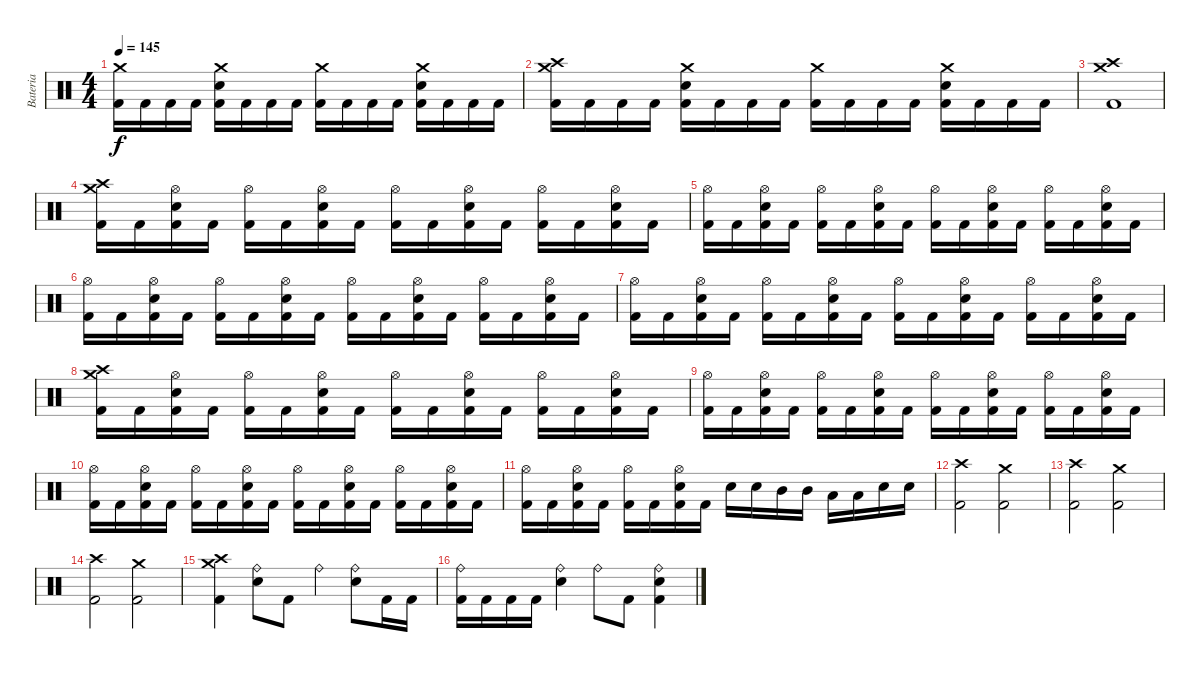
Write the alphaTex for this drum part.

\track ("Bateria" "Bateria") {instrument percussion}
\staff {score}
\articulation defaults
\ts (4 4)
\tempo 145
\clef neutral
\ks c
("Crash medium (hit)" "Kick (hit) 2").16{dy f} "Kick (hit) 2".16 "Kick (hit) 2".16 "Kick (hit) 2".16 ("Crash medium (hit)" "Snare (hit) 2" "Kick (hit) 2").16 "Kick (hit) 2".16 "Kick (hit) 2".16 "Kick (hit) 2".16 ("Crash medium (hit)" "Kick (hit) 2").16 "Kick (hit) 2".16 "Kick (hit) 2".16 "Kick (hit) 2".16 ("Crash medium (hit)" "Snare (hit) 2" "Kick (hit) 2").16 "Kick (hit) 2".16 "Kick (hit) 2".16 "Kick (hit) 2".16 |
("Crash high (hit)" "Crash medium (hit)" "Kick (hit) 2").16 "Kick (hit) 2".16 "Kick (hit) 2".16 "Kick (hit) 2".16 ("Crash medium (hit)" "Snare (hit) 2" "Kick (hit) 2").16 "Kick (hit) 2".16 "Kick (hit) 2".16 "Kick (hit) 2".16 ("Crash medium (hit)" "Kick (hit) 2").16 "Kick (hit) 2".16 "Kick (hit) 2".16 "Kick (hit) 2".16 ("Crash medium (hit)" "Snare (hit) 2" "Kick (hit) 2").16 "Kick (hit) 2".16 "Kick (hit) 2".16 "Kick (hit) 2".16 |
("Crash high (hit)" "Crash medium (hit)" "Kick (hit) 2").1 |
("Crash high (hit)" "Crash medium (hit)" "Kick (hit) 2").16 "Kick (hit) 2".16 ("Hi-Hat (open)" "Snare (hit) 2" "Kick (hit) 2").16 "Kick (hit) 2".16 ("Hi-Hat (open)" "Kick (hit) 2").16 "Kick (hit) 2".16 ("Hi-Hat (open)" "Snare (hit) 2" "Kick (hit) 2").16 "Kick (hit) 2".16 ("Hi-Hat (open)" "Kick (hit) 2").16 "Kick (hit) 2".16 ("Hi-Hat (open)" "Snare (hit) 2" "Kick (hit) 2").16 "Kick (hit) 2".16 ("Hi-Hat (open)" "Kick (hit) 2").16 "Kick (hit) 2".16 ("Hi-Hat (open)" "Snare (hit) 2" "Kick (hit) 2").16 "Kick (hit) 2".16 |
("Hi-Hat (open)" "Kick (hit) 2").16 "Kick (hit) 2".16 ("Hi-Hat (open)" "Snare (hit) 2" "Kick (hit) 2").16 "Kick (hit) 2".16 ("Hi-Hat (open)" "Kick (hit) 2").16 "Kick (hit) 2".16 ("Hi-Hat (open)" "Snare (hit) 2" "Kick (hit) 2").16 "Kick (hit) 2".16 ("Hi-Hat (open)" "Kick (hit) 2").16 "Kick (hit) 2".16 ("Hi-Hat (open)" "Snare (hit) 2" "Kick (hit) 2").16 "Kick (hit) 2".16 ("Hi-Hat (open)" "Kick (hit) 2").16 "Kick (hit) 2".16 ("Hi-Hat (open)" "Snare (hit) 2" "Kick (hit) 2").16 "Kick (hit) 2".16 |
("Hi-Hat (open)" "Kick (hit) 2").16 "Kick (hit) 2".16 ("Hi-Hat (open)" "Snare (hit) 2" "Kick (hit) 2").16 "Kick (hit) 2".16 ("Hi-Hat (open)" "Kick (hit) 2").16 "Kick (hit) 2".16 ("Hi-Hat (open)" "Snare (hit) 2" "Kick (hit) 2").16 "Kick (hit) 2".16 ("Hi-Hat (open)" "Kick (hit) 2").16 "Kick (hit) 2".16 ("Hi-Hat (open)" "Snare (hit) 2" "Kick (hit) 2").16 "Kick (hit) 2".16 ("Hi-Hat (open)" "Kick (hit) 2").16 "Kick (hit) 2".16 ("Hi-Hat (open)" "Snare (hit) 2" "Kick (hit) 2").16 "Kick (hit) 2".16 |
("Hi-Hat (open)" "Kick (hit) 2").16 "Kick (hit) 2".16 ("Hi-Hat (open)" "Snare (hit) 2" "Kick (hit) 2").16 "Kick (hit) 2".16 ("Hi-Hat (open)" "Kick (hit) 2").16 "Kick (hit) 2".16 ("Hi-Hat (open)" "Snare (hit) 2" "Kick (hit) 2").16 "Kick (hit) 2".16 ("Hi-Hat (open)" "Kick (hit) 2").16 "Kick (hit) 2".16 ("Hi-Hat (open)" "Snare (hit) 2" "Kick (hit) 2").16 "Kick (hit) 2".16 ("Hi-Hat (open)" "Kick (hit) 2").16 "Kick (hit) 2".16 ("Hi-Hat (open)" "Snare (hit) 2" "Kick (hit) 2").16 "Kick (hit) 2".16 |
("Crash high (hit)" "Crash medium (hit)" "Kick (hit) 2").16 "Kick (hit) 2".16 ("Hi-Hat (open)" "Snare (hit) 2" "Kick (hit) 2").16 "Kick (hit) 2".16 ("Hi-Hat (open)" "Kick (hit) 2").16 "Kick (hit) 2".16 ("Hi-Hat (open)" "Snare (hit) 2" "Kick (hit) 2").16 "Kick (hit) 2".16 ("Hi-Hat (open)" "Kick (hit) 2").16 "Kick (hit) 2".16 ("Hi-Hat (open)" "Snare (hit) 2" "Kick (hit) 2").16 "Kick (hit) 2".16 ("Hi-Hat (open)" "Kick (hit) 2").16 "Kick (hit) 2".16 ("Hi-Hat (open)" "Snare (hit) 2" "Kick (hit) 2").16 "Kick (hit) 2".16 |
("Hi-Hat (open)" "Kick (hit) 2").16 "Kick (hit) 2".16 ("Hi-Hat (open)" "Snare (hit) 2" "Kick (hit) 2").16 "Kick (hit) 2".16 ("Hi-Hat (open)" "Kick (hit) 2").16 "Kick (hit) 2".16 ("Hi-Hat (open)" "Snare (hit) 2" "Kick (hit) 2").16 "Kick (hit) 2".16 ("Hi-Hat (open)" "Kick (hit) 2").16 "Kick (hit) 2".16 ("Hi-Hat (open)" "Snare (hit) 2" "Kick (hit) 2").16 "Kick (hit) 2".16 ("Hi-Hat (open)" "Kick (hit) 2").16 "Kick (hit) 2".16 ("Hi-Hat (open)" "Snare (hit) 2" "Kick (hit) 2").16 "Kick (hit) 2".16 |
("Hi-Hat (open)" "Kick (hit) 2").16 "Kick (hit) 2".16 ("Hi-Hat (open)" "Snare (hit) 2" "Kick (hit) 2").16 "Kick (hit) 2".16 ("Hi-Hat (open)" "Kick (hit) 2").16 "Kick (hit) 2".16 ("Hi-Hat (open)" "Snare (hit) 2" "Kick (hit) 2").16 "Kick (hit) 2".16 ("Hi-Hat (open)" "Kick (hit) 2").16 "Kick (hit) 2".16 ("Hi-Hat (open)" "Snare (hit) 2" "Kick (hit) 2").16 "Kick (hit) 2".16 ("Hi-Hat (open)" "Kick (hit) 2").16 "Kick (hit) 2".16 ("Hi-Hat (open)" "Snare (hit) 2" "Kick (hit) 2").16 "Kick (hit) 2".16 |
("Hi-Hat (open)" "Kick (hit) 2").16 "Kick (hit) 2".16 ("Hi-Hat (open)" "Snare (hit) 2" "Kick (hit) 2").16 "Kick (hit) 2".16 ("Hi-Hat (open)" "Kick (hit) 2").16 "Kick (hit) 2".16 ("Hi-Hat (open)" "Snare (hit) 2" "Kick (hit) 2").16 "Kick (hit) 2".16 "Snare (hit) 2".16 "Snare (hit) 2".16 "Mid Tom (hit)".16 "Mid Tom (hit)".16 "Low Tom (hit)".16 "Low Tom (hit)".16 "Snare (hit) 2".16 "Snare (hit) 2".16 |
("Crash high (hit)" "Kick (hit) 2").2 ("Crash medium (hit)" "Kick (hit) 2").2 |
("Crash high (hit)" "Kick (hit) 2").2 ("Crash medium (hit)" "Kick (hit) 2").2 |
("Crash high (hit)" "Kick (hit) 2").2 ("Crash medium (hit)" "Kick (hit) 2").2 |
("Crash high (hit)" "Crash medium (hit)" "Kick (hit) 2").4 ("Ride (bell)" "Snare (hit) 2").8 "Kick (hit) 2".8 "Ride (bell)".4 ("Ride (bell)" "Snare (hit) 2").8 "Kick (hit) 2".16 "Kick (hit) 2".16 |
("Ride (bell)" "Kick (hit) 2").16 "Kick (hit) 2".16 "Kick (hit) 2".16 "Kick (hit) 2".16 ("Ride (bell)" "Snare (hit) 2").4 "Ride (bell)".8 "Kick (hit) 2".8 ("Ride (bell)" "Snare (hit) 2" "Kick (hit) 2").4
